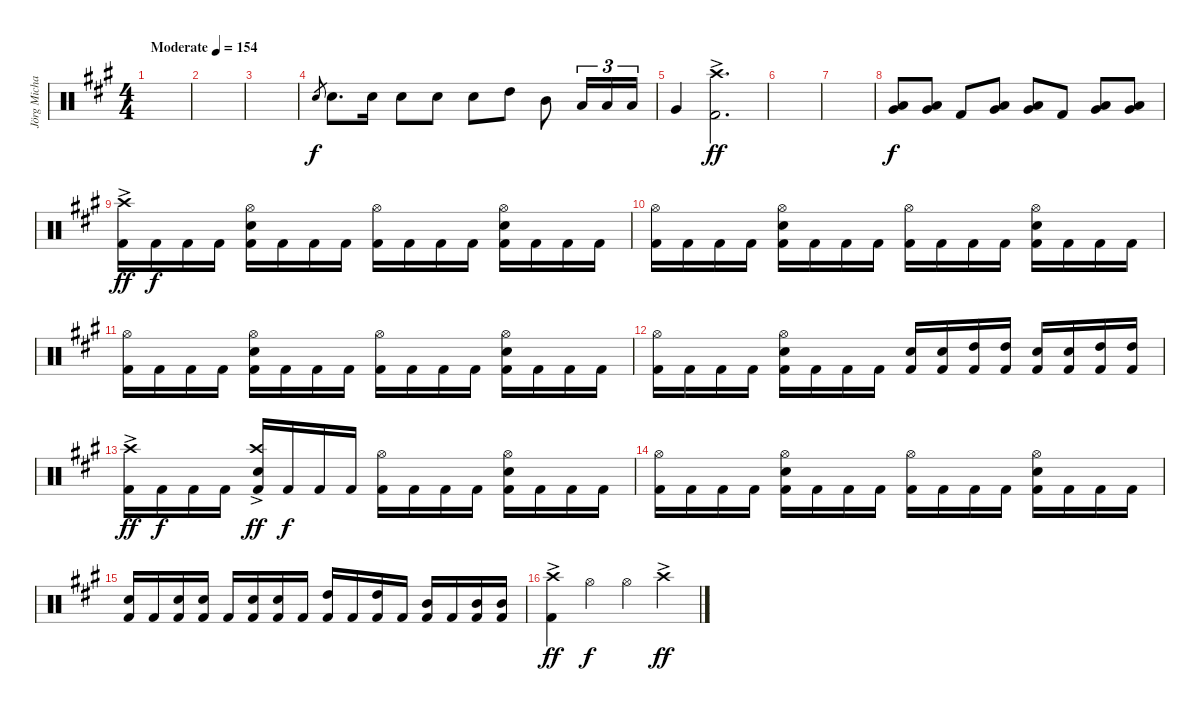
\track ("Jörg Michael" "Jörg Micha") {instrument percussion}
\staff {score}
\articulation defaults
\ts (4 4)
\tempo (154 "Moderate")
\clef neutral
\ks a
|
|
|
"Electric Snare (hit)".8{gr} "Electric Snare (hit)".8{d} "Electric Snare (hit)".16 "Electric Snare (hit)".8 "Electric Snare (hit)".8 "Electric Snare (hit)".8 "High Tom (hit)".8 "Mid Tom (hit)".8 "Low Tom (hit)".16{tu (3 2)} "Low Tom (hit)".16{tu (3 2)} "Low Tom (hit)".16{tu (3 2)} |
"Very Low Tom (hit)".4 ("Crash high (hit)"{ac} "Kick (hit) 2"{ac}).2{d dy ff} |
|
|
("Low Tom (hit)" "Very Low Tom (hit)").8{dy f} ("Low Tom (hit)" "Very Low Tom (hit)").8 "Kick (hit) 2".8 ("Low Tom (hit)" "Very Low Tom (hit)").8 ("Low Tom (hit)" "Very Low Tom (hit)").8 "Kick (hit) 2".8 ("Low Tom (hit)" "Very Low Tom (hit)").8 ("Low Tom (hit)" "Very Low Tom (hit)").8 |
("Crash high (hit)"{ac} "Kick (hit) 2"{ac}).16{dy ff} "Kick (hit) 2".16{dy f} "Kick (hit) 2".16 "Kick (hit) 2".16 ("Electric Snare (hit)" "Kick (hit) 2" "Hi-Hat (open)").16 "Kick (hit) 2".16 "Kick (hit) 2".16 "Kick (hit) 2".16 ("Kick (hit) 2" "Hi-Hat (open)").16 "Kick (hit) 2".16 "Kick (hit) 2".16 "Kick (hit) 2".16 ("Electric Snare (hit)" "Kick (hit) 2" "Hi-Hat (open)").16 "Kick (hit) 2".16 "Kick (hit) 2".16 "Kick (hit) 2".16 |
("Hi-Hat (open)" "Kick (hit) 2").16 "Kick (hit) 2".16 "Kick (hit) 2".16 "Kick (hit) 2".16 ("Electric Snare (hit)" "Kick (hit) 2" "Hi-Hat (open)").16 "Kick (hit) 2".16 "Kick (hit) 2".16 "Kick (hit) 2".16 ("Kick (hit) 2" "Hi-Hat (open)").16 "Kick (hit) 2".16 "Kick (hit) 2".16 "Kick (hit) 2".16 ("Electric Snare (hit)" "Kick (hit) 2" "Hi-Hat (open)").16 "Kick (hit) 2".16 "Kick (hit) 2".16 "Kick (hit) 2".16 |
("Hi-Hat (open)" "Kick (hit) 2").16 "Kick (hit) 2".16 "Kick (hit) 2".16 "Kick (hit) 2".16 ("Electric Snare (hit)" "Kick (hit) 2" "Hi-Hat (open)").16 "Kick (hit) 2".16 "Kick (hit) 2".16 "Kick (hit) 2".16 ("Kick (hit) 2" "Hi-Hat (open)").16 "Kick (hit) 2".16 "Kick (hit) 2".16 "Kick (hit) 2".16 ("Electric Snare (hit)" "Kick (hit) 2" "Hi-Hat (open)").16 "Kick (hit) 2".16 "Kick (hit) 2".16 "Kick (hit) 2".16 |
("Hi-Hat (open)" "Kick (hit) 2").16 "Kick (hit) 2".16 "Kick (hit) 2".16 "Kick (hit) 2".16 ("Electric Snare (hit)" "Kick (hit) 2" "Hi-Hat (open)").16 "Kick (hit) 2".16 "Kick (hit) 2".16 "Kick (hit) 2".16 ("Kick (hit) 2" "Electric Snare (hit)").16 ("Kick (hit) 2" "Electric Snare (hit)").16 ("Kick (hit) 2" "High Tom (hit)").16 ("Kick (hit) 2" "High Tom (hit)").16 ("Kick (hit) 2" "Electric Snare (hit)").16 ("Kick (hit) 2" "Electric Snare (hit)").16 ("Kick (hit) 2" "High Tom (hit)").16 ("Kick (hit) 2" "High Tom (hit)").16 |
("Crash high (hit)"{ac} "Kick (hit) 2"{ac}).16{dy ff} "Kick (hit) 2".16{dy f} "Kick (hit) 2".16 "Kick (hit) 2".16 ("Electric Snare (hit)"{ac} "Kick (hit) 2"{ac} "Crash high (hit)"{ac}).16{dy ff} "Kick (hit) 2".16{dy f} "Kick (hit) 2".16 "Kick (hit) 2".16 ("Kick (hit) 2" "Hi-Hat (open)").16 "Kick (hit) 2".16 "Kick (hit) 2".16 "Kick (hit) 2".16 ("Electric Snare (hit)" "Kick (hit) 2" "Hi-Hat (open)").16 "Kick (hit) 2".16 "Kick (hit) 2".16 "Kick (hit) 2".16 |
("Hi-Hat (open)" "Kick (hit) 2").16 "Kick (hit) 2".16 "Kick (hit) 2".16 "Kick (hit) 2".16 ("Hi-Hat (open)" "Kick (hit) 2" "Electric Snare (hit)").16 "Kick (hit) 2".16 "Kick (hit) 2".16 "Kick (hit) 2".16 ("Kick (hit) 2" "Hi-Hat (open)").16 "Kick (hit) 2".16 "Kick (hit) 2".16 "Kick (hit) 2".16 ("Electric Snare (hit)" "Kick (hit) 2" "Hi-Hat (open)").16 "Kick (hit) 2".16 "Kick (hit) 2".16 "Kick (hit) 2".16 |
("Electric Snare (hit)" "Kick (hit) 2").16 "Kick (hit) 2".16 ("Electric Snare (hit)" "Kick (hit) 2").16 ("Electric Snare (hit)" "Kick (hit) 2").16 "Kick (hit) 2".16 ("Electric Snare (hit)" "Kick (hit) 2").16 ("Electric Snare (hit)" "Kick (hit) 2").16 "Kick (hit) 2".16 ("Kick (hit) 2" "High Tom (hit)").16 "Kick (hit) 2".16 ("Kick (hit) 2" "High Tom (hit)").16 "Kick (hit) 2".16 ("Kick (hit) 2" "Mid Tom (hit)").16 "Kick (hit) 2".16 ("Kick (hit) 2" "Mid Tom (hit)").16 ("Kick (hit) 2" "Mid Tom (hit)").16 |
("Crash high (hit)"{ac} "Kick (hit) 2"{ac}).4{dy ff} "Hi-Hat (open)".4{dy f} "Hi-Hat (open)".4 "Crash high (hit)"{ac}.4{dy ff}
